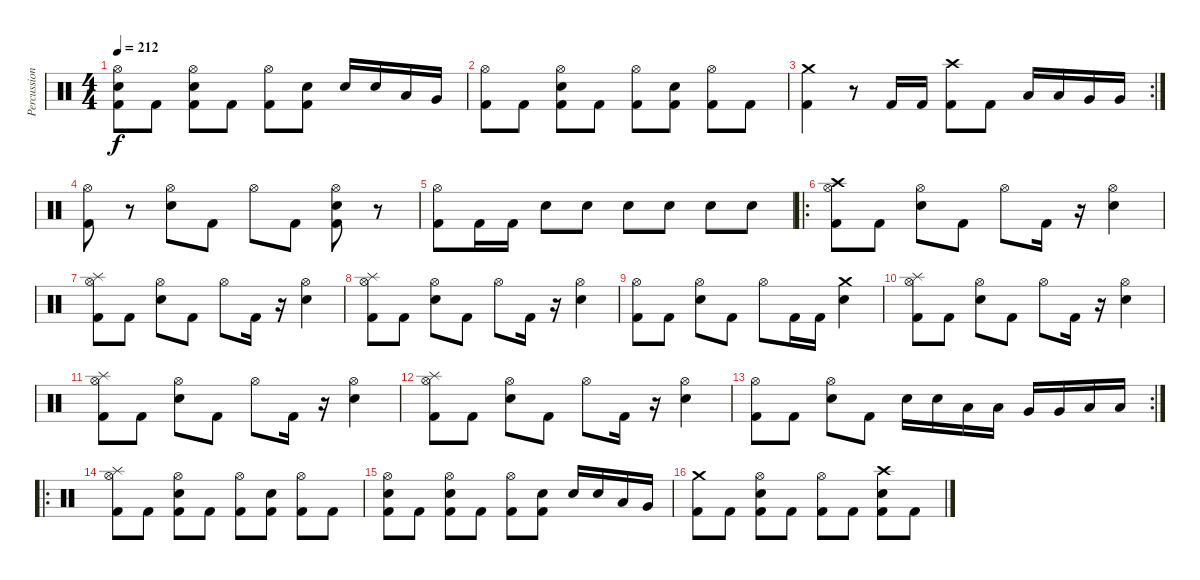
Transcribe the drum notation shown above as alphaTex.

\track ("Percussions" "Percussion") {instrument percussion}
\staff {score}
\articulation defaults
\ts (4 4)
\tempo 212
\clef neutral
\ks c
("Hi-Hat (open)" "Snare (hit) 2" "Kick (hit) 2").8{dy f} "Kick (hit) 2".8 ("Hi-Hat (open)" "Snare (hit) 2" "Kick (hit) 2").8 "Kick (hit) 2".8 ("Hi-Hat (open)" "Kick (hit) 2").8 ("Snare (hit) 2" "Kick (hit) 2").8 "Snare (hit) 2".16 "Snare (hit) 2".16 "Low Tom (hit)".16 "Very Low Tom (hit)".16 |
("Hi-Hat (open)" "Kick (hit) 2").8 "Kick (hit) 2".8 ("Hi-Hat (open)" "Snare (hit) 2" "Kick (hit) 2").8 "Kick (hit) 2".8 ("Hi-Hat (open)" "Kick (hit) 2").8 ("Snare (hit) 2" "Kick (hit) 2").8 ("Hi-Hat (open)" "Kick (hit) 2").8 "Kick (hit) 2".8 |
\rc 2
("Crash medium (hit)" "Kick (hit) 2").4 r.8 "Kick (hit) 2".16 "Kick (hit) 2".16 ("Crash high (hit)" "Kick (hit) 2").8 "Kick (hit) 2".8 "Low Tom (hit)".16 "Low Tom (hit)".16 "Very Low Tom (hit)".16 "Very Low Tom (hit)".16 |
("Hi-Hat (open)" "Kick (hit) 2").8 r.8 ("Hi-Hat (open)" "Snare (hit) 2").8 "Kick (hit) 2".8 "Hi-Hat (open)".8 "Kick (hit) 2".8 ("Hi-Hat (open)" "Snare (hit) 2" "Kick (hit) 2").8 r.8 |
("Hi-Hat (open)" "Kick (hit) 2").8 "Kick (hit) 2".16 "Kick (hit) 2".16 "Snare (hit) 2".8 "Snare (hit) 2".8 "Snare (hit) 2".8 "Snare (hit) 2".8 "Snare (hit) 2".8 "Snare (hit) 2".8 |
\ro
("Hi-Hat (open)" "Crash high (hit)" "Kick (hit) 2").8 "Kick (hit) 2".8 ("Hi-Hat (open)" "Snare (hit) 2").8 "Kick (hit) 2".8 "Hi-Hat (open)".8 "Kick (hit) 2".16 r.16 ("Hi-Hat (open)" "Snare (hit) 2").4 |
("Hi-Hat (open)" "Splash (hit)" "Kick (hit) 2").8 "Kick (hit) 2".8 ("Hi-Hat (open)" "Snare (hit) 2").8 "Kick (hit) 2".8 "Hi-Hat (open)".8 "Kick (hit) 2".16 r.16 ("Hi-Hat (open)" "Snare (hit) 2").4 |
("Hi-Hat (open)" "Splash (hit)" "Kick (hit) 2").8 "Kick (hit) 2".8 ("Hi-Hat (open)" "Snare (hit) 2").8 "Kick (hit) 2".8 "Hi-Hat (open)".8 "Kick (hit) 2".16 r.16 ("Hi-Hat (open)" "Snare (hit) 2").4 |
("Hi-Hat (open)" "Kick (hit) 2").8 "Kick (hit) 2".8 ("Hi-Hat (open)" "Snare (hit) 2").8 "Kick (hit) 2".8 "Hi-Hat (open)".8 "Kick (hit) 2".16 "Kick (hit) 2".16 ("Crash medium (hit)" "Snare (hit) 2").4 |
("Hi-Hat (open)" "Splash (hit)" "Kick (hit) 2").8 "Kick (hit) 2".8 ("Hi-Hat (open)" "Snare (hit) 2").8 "Kick (hit) 2".8 "Hi-Hat (open)".8 "Kick (hit) 2".16 r.16 ("Hi-Hat (open)" "Snare (hit) 2").4 |
("Hi-Hat (open)" "Splash (hit)" "Kick (hit) 2").8 "Kick (hit) 2".8 ("Hi-Hat (open)" "Snare (hit) 2").8 "Kick (hit) 2".8 "Hi-Hat (open)".8 "Kick (hit) 2".16 r.16 ("Hi-Hat (open)" "Snare (hit) 2").4 |
("Hi-Hat (open)" "Splash (hit)" "Kick (hit) 2").8 "Kick (hit) 2".8 ("Hi-Hat (open)" "Snare (hit) 2").8 "Kick (hit) 2".8 "Hi-Hat (open)".8 "Kick (hit) 2".16 r.16 ("Hi-Hat (open)" "Snare (hit) 2").4 |
\rc 2
("Hi-Hat (open)" "Kick (hit) 2").8 "Kick (hit) 2".8 ("Hi-Hat (open)" "Snare (hit) 2").8 "Kick (hit) 2".8 "Snare (hit) 2".16 "Snare (hit) 2".16 "Low Tom (hit)".16 "Low Tom (hit)".16 "Very Low Tom (hit)".16 "Very Low Tom (hit)".16 "Low Floor Tom (hit)".16 "Low Floor Tom (hit)".16 |
\ro
("Hi-Hat (open)" "Splash (hit)" "Kick (hit) 2").8 "Kick (hit) 2".8 ("Hi-Hat (open)" "Snare (hit) 2" "Kick (hit) 2").8 "Kick (hit) 2".8 ("Hi-Hat (open)" "Kick (hit) 2").8 ("Snare (hit) 2" "Kick (hit) 2").8 ("Hi-Hat (open)" "Kick (hit) 2").8 "Kick (hit) 2".8 |
("Hi-Hat (open)" "Snare (hit) 2" "Kick (hit) 2").8 "Kick (hit) 2".8 ("Hi-Hat (open)" "Snare (hit) 2" "Kick (hit) 2").8 "Kick (hit) 2".8 ("Hi-Hat (open)" "Kick (hit) 2").8 ("Snare (hit) 2" "Kick (hit) 2").8 "Snare (hit) 2".16 "Snare (hit) 2".16 "Low Tom (hit)".16 "Very Low Tom (hit)".16 |
("Crash medium (hit)" "Kick (hit) 2").8 "Kick (hit) 2".8 ("Hi-Hat (open)" "Snare (hit) 2" "Kick (hit) 2").8 "Kick (hit) 2".8 ("Hi-Hat (open)" "Kick (hit) 2").8 "Kick (hit) 2".8 ("Crash high (hit)" "Snare (hit) 2" "Kick (hit) 2").8 "Kick (hit) 2".8
